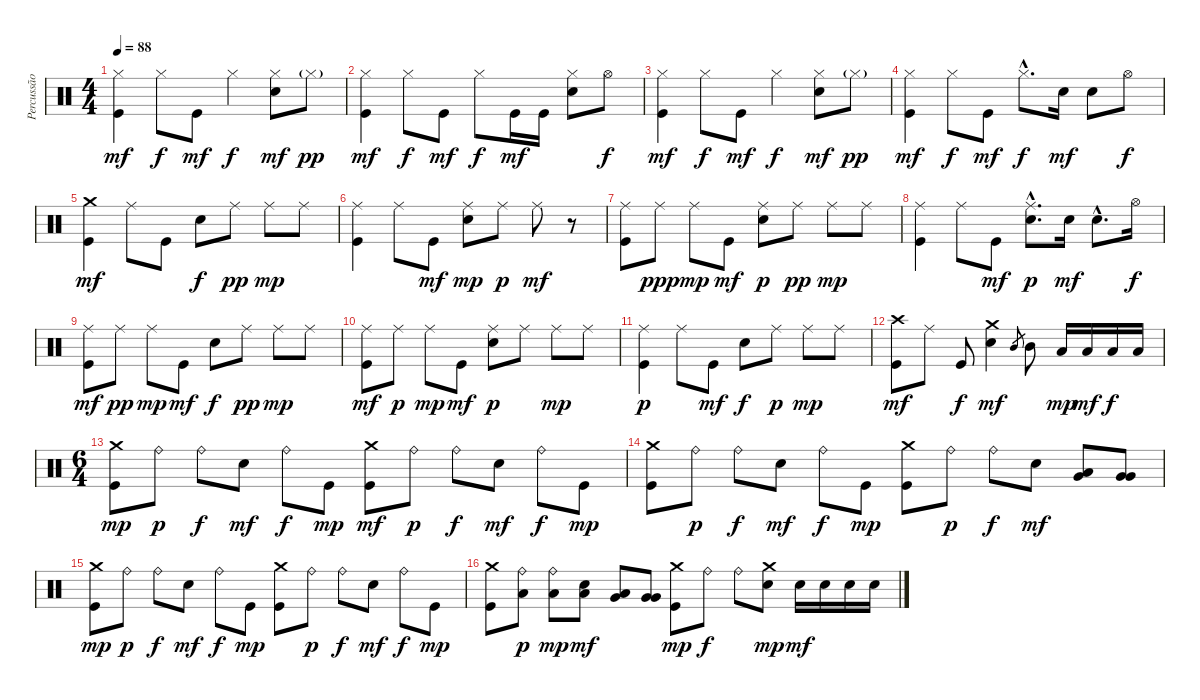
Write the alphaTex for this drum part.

\track ("Percussão" "Percussão") {instrument percussion}
\staff {score}
\articulation defaults
\ts (4 4)
\tempo 88
\clef neutral
\ks c
("Kick (hit)" "Hi-Hat (closed)").4{dy mf} "Hi-Hat (closed)".8{dy f} "Kick (hit)".8{dy mf} "Hi-Hat (closed)".4{dy f} ("Electric Snare (hit)" "Hi-Hat (closed)").8{dy mf} "Hi-Hat (closed)"{g}.8{dy pp} |
("Kick (hit)" "Hi-Hat (closed)").4{dy mf} "Hi-Hat (closed)".8{dy f} "Kick (hit)".8{dy mf} "Hi-Hat (closed)".8{dy f} "Kick (hit)".16{dy mf} "Kick (hit)".16 ("Electric Snare (hit)" "Hi-Hat (closed)").8 "Hi-Hat (open)".8{dy f} |
("Kick (hit)" "Hi-Hat (closed)").4{dy mf} "Hi-Hat (closed)".8{dy f} "Kick (hit)".8{dy mf} "Hi-Hat (closed)".4{dy f} ("Electric Snare (hit)" "Hi-Hat (closed)").8{dy mf} "Hi-Hat (closed)"{g}.8{dy pp} |
("Kick (hit)" "Hi-Hat (closed)").4{dy mf} "Hi-Hat (closed)".8{dy f} "Kick (hit)".8{dy mf} "Hi-Hat (closed)"{hac}.8{d dy f} "Electric Snare (hit)".16{dy mf} "Electric Snare (hit)".8 "Hi-Hat (open)".8{dy f} |
("Kick (hit)" "Crash medium (hit)").4{dy mf} "Ride (middle)".8 "Kick (hit)".8 "Electric Snare (hit)".8{dy f} "Ride (middle)".8{dy pp} "Ride (middle)".8{dy mp} "Ride (middle)".8 |
("Kick (hit)" "Ride (middle)").4 "Ride (middle)".8 "Kick (hit)".8{dy mf} ("Electric Snare (hit)" "Ride (middle)").8{dy mp} "Ride (middle)".8{dy p} "Ride (middle)".8{dy mf} r.8 |
("Kick (hit)" "Ride (middle)").8 "Ride (middle)".8{dy ppp} "Ride (middle)".8{dy mp} "Kick (hit)".8{dy mf} ("Electric Snare (hit)" "Ride (middle)").8{dy p} "Ride (middle)".8{dy pp} "Ride (middle)".8{dy mp} "Ride (middle)".8 |
("Kick (hit)" "Ride (middle)").4 "Ride (middle)".8 "Kick (hit)".8{dy mf} ("Electric Snare (hit)"{hac} "Ride (middle)"{hac}).8{d dy p} "Electric Snare (hit)".16{dy mf} "Electric Snare (hit)"{hac}.8{d} "Hi-Hat (open)".16{dy f} |
("Kick (hit)" "Ride (middle)").8{dy mf} "Ride (middle)".8{dy pp} "Ride (middle)".8{dy mp} "Kick (hit)".8{dy mf} "Electric Snare (hit)".8{dy f} "Ride (middle)".8{dy pp} "Ride (middle)".8{dy mp} "Ride (middle)".8 |
("Kick (hit)" "Ride (middle)").8{dy mf} "Ride (middle)".8{dy p} "Ride (middle)".8{dy mp} "Kick (hit)".8{dy mf} ("Electric Snare (hit)" "Ride (middle)").8{dy p} "Ride (middle)".8 "Ride (middle)".8{dy mp} "Ride (middle)".8 |
("Kick (hit)" "Ride (middle)").4{dy p} "Ride (middle)".8 "Kick (hit)".8{dy mf} "Electric Snare (hit)".8{dy f} "Ride (middle)".8{dy p} "Ride (middle)".8{dy mp} "Ride (middle)".8 |
("Kick (hit)" "Crash high (hit)").8{dy mf} "Ride (middle)".8 "Kick (hit)".8{dy f} ("Electric Snare (hit)" "Crash medium (hit)").4{dy mf} "Mid Tom (hit)".8{gr} "Mid Tom (hit)".8{balance 12} "Low Tom (hit)".16{dy mp balance 9} "Low Tom (hit)".16{dy mf balance 7} "Low Tom (hit)".16{dy f balance 4} "Low Tom (hit)".16{balance 8} |
\ts (6 4)
("Kick (hit)" "Crash medium (hit)").8{dy mp} "Ride (bell)".8{dy p} "Ride (bell)".8{dy f} "Electric Snare (hit)".8{dy mf} "Ride (bell)".8{dy f} "Kick (hit)".8{dy mp} ("Crash medium (hit)" "Kick (hit)").8{dy mf} "Ride (bell)".8{dy p} "Ride (bell)".8{dy f} "Electric Snare (hit)".8{dy mf} "Ride (bell)".8{dy f} "Kick (hit)".8{dy mp} |
("Kick (hit)" "Crash medium (hit)").8 "Ride (bell)".8{dy p} "Ride (bell)".8{dy f} "Electric Snare (hit)".8{dy mf} "Ride (bell)".8{dy f} "Kick (hit)".8{dy mp} ("Crash medium (hit)" "Kick (hit)").8 "Ride (bell)".8{dy p} "Ride (bell)".8{dy f} "Electric Snare (hit)".8{dy mf} ("Very Low Tom (hit)" "Low Tom (hit)").8 ("Very Low Tom (hit)" "Very Low Tom (hit)").8 |
("Kick (hit)" "Crash medium (hit)").8{dy mp} "Ride (bell)".8{dy p} "Ride (bell)".8{dy f} "Electric Snare (hit)".8{dy mf} "Ride (bell)".8{dy f} "Kick (hit)".8{dy mp} ("Crash medium (hit)" "Kick (hit)").8 "Ride (bell)".8{dy p} "Ride (bell)".8{dy f} "Electric Snare (hit)".8{dy mf} "Ride (bell)".8{dy f} "Kick (hit)".8{dy mp} |
("Kick (hit)" "Crash medium (hit)").8 ("Low Tom (hit)" "Ride (bell)").8{dy p} ("Low Tom (hit)" "Ride (bell)").8{dy mp} ("Electric Snare (hit)" "Low Tom (hit)").8{dy mf} ("Very Low Tom (hit)" "Low Tom (hit)").8 ("Very Low Tom (hit)" "Very Low Tom (hit)").8 ("Crash medium (hit)" "Kick (hit)").8{dy mp} "Ride (bell)".8{dy f} "Ride (bell)".8 ("Electric Snare (hit)" "Crash medium (hit)").8{dy mp} "Electric Snare (hit)".16{dy mf} "Electric Snare (hit)".16 "Electric Snare (hit)".16 "Electric Snare (hit)".16
